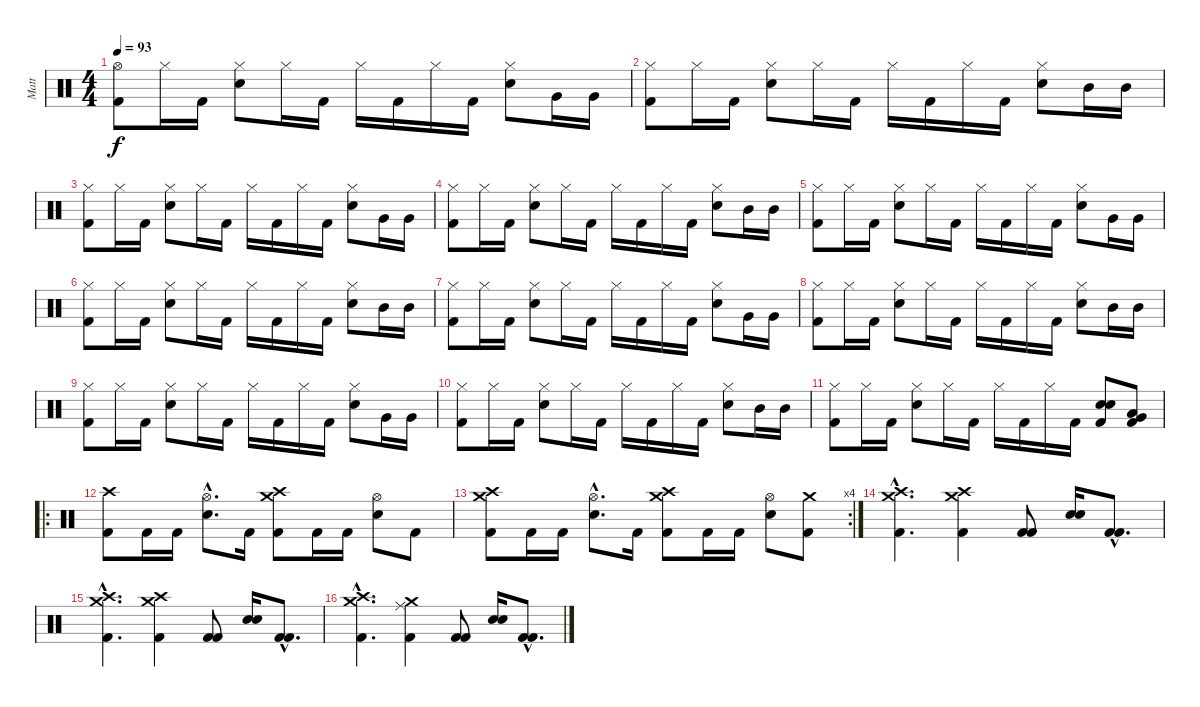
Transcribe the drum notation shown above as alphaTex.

\track ("Matt" "Matt") {instrument percussion}
\staff {score}
\articulation defaults
\ts (4 4)
\tempo 93
\clef neutral
\ks c
("Hi-Hat (open)" "Kick (hit) 2").8{dy f} "Hi-Hat (closed)".16 "Kick (hit) 2".16 ("Hi-Hat (closed)" "Electric Snare (hit)").8 "Hi-Hat (closed)".16 "Kick (hit) 2".16 "Hi-Hat (closed)".16 "Kick (hit) 2".16 "Hi-Hat (closed)".16 "Kick (hit) 2".16 ("Hi-Hat (closed)" "Electric Snare (hit)").8 "Very Low Tom (hit)".16 "Very Low Tom (hit)".16 |
("Hi-Hat (closed)" "Kick (hit) 2").8 "Hi-Hat (closed)".16 "Kick (hit) 2".16 ("Hi-Hat (closed)" "Electric Snare (hit)").8 "Hi-Hat (closed)".16 "Kick (hit) 2".16 "Hi-Hat (closed)".16 "Kick (hit) 2".16 "Hi-Hat (closed)".16 "Kick (hit) 2".16 ("Hi-Hat (closed)" "Electric Snare (hit)").8 "Mid Tom (hit)".16 "Mid Tom (hit)".16 |
("Hi-Hat (closed)" "Kick (hit) 2").8 "Hi-Hat (closed)".16 "Kick (hit) 2".16 ("Hi-Hat (closed)" "Electric Snare (hit)").8 "Hi-Hat (closed)".16 "Kick (hit) 2".16 "Hi-Hat (closed)".16 "Kick (hit) 2".16 "Hi-Hat (closed)".16 "Kick (hit) 2".16 ("Hi-Hat (closed)" "Electric Snare (hit)").8 "Very Low Tom (hit)".16 "Very Low Tom (hit)".16 |
("Hi-Hat (closed)" "Kick (hit) 2").8 "Hi-Hat (closed)".16 "Kick (hit) 2".16 ("Hi-Hat (closed)" "Electric Snare (hit)").8 "Hi-Hat (closed)".16 "Kick (hit) 2".16 "Hi-Hat (closed)".16 "Kick (hit) 2".16 "Hi-Hat (closed)".16 "Kick (hit) 2".16 ("Hi-Hat (closed)" "Electric Snare (hit)").8 "Mid Tom (hit)".16 "Mid Tom (hit)".16 |
("Hi-Hat (closed)" "Kick (hit) 2").8 "Hi-Hat (closed)".16 "Kick (hit) 2".16 ("Hi-Hat (closed)" "Electric Snare (hit)").8 "Hi-Hat (closed)".16 "Kick (hit) 2".16 "Hi-Hat (closed)".16 "Kick (hit) 2".16 "Hi-Hat (closed)".16 "Kick (hit) 2".16 ("Hi-Hat (closed)" "Electric Snare (hit)").8 "Very Low Tom (hit)".16 "Very Low Tom (hit)".16 |
("Hi-Hat (closed)" "Kick (hit) 2").8 "Hi-Hat (closed)".16 "Kick (hit) 2".16 ("Hi-Hat (closed)" "Electric Snare (hit)").8 "Hi-Hat (closed)".16 "Kick (hit) 2".16 "Hi-Hat (closed)".16 "Kick (hit) 2".16 "Hi-Hat (closed)".16 "Kick (hit) 2".16 ("Hi-Hat (closed)" "Electric Snare (hit)").8 "Mid Tom (hit)".16 "Mid Tom (hit)".16 |
("Hi-Hat (closed)" "Kick (hit) 2").8 "Hi-Hat (closed)".16 "Kick (hit) 2".16 ("Hi-Hat (closed)" "Electric Snare (hit)").8 "Hi-Hat (closed)".16 "Kick (hit) 2".16 "Hi-Hat (closed)".16 "Kick (hit) 2".16 "Hi-Hat (closed)".16 "Kick (hit) 2".16 ("Hi-Hat (closed)" "Electric Snare (hit)").8 "Very Low Tom (hit)".16 "Very Low Tom (hit)".16 |
("Hi-Hat (closed)" "Kick (hit) 2").8 "Hi-Hat (closed)".16 "Kick (hit) 2".16 ("Hi-Hat (closed)" "Electric Snare (hit)").8 "Hi-Hat (closed)".16 "Kick (hit) 2".16 "Hi-Hat (closed)".16 "Kick (hit) 2".16 "Hi-Hat (closed)".16 "Kick (hit) 2".16 ("Hi-Hat (closed)" "Electric Snare (hit)").8 "Mid Tom (hit)".16 "Mid Tom (hit)".16 |
("Hi-Hat (closed)" "Kick (hit) 2").8 "Hi-Hat (closed)".16 "Kick (hit) 2".16 ("Hi-Hat (closed)" "Electric Snare (hit)").8 "Hi-Hat (closed)".16 "Kick (hit) 2".16 "Hi-Hat (closed)".16 "Kick (hit) 2".16 "Hi-Hat (closed)".16 "Kick (hit) 2".16 ("Hi-Hat (closed)" "Electric Snare (hit)").8 "Very Low Tom (hit)".16 "Very Low Tom (hit)".16 |
("Hi-Hat (closed)" "Kick (hit) 2").8 "Hi-Hat (closed)".16 "Kick (hit) 2".16 ("Hi-Hat (closed)" "Electric Snare (hit)").8 "Hi-Hat (closed)".16 "Kick (hit) 2".16 "Hi-Hat (closed)".16 "Kick (hit) 2".16 "Hi-Hat (closed)".16 "Kick (hit) 2".16 ("Hi-Hat (closed)" "Electric Snare (hit)").8 "Mid Tom (hit)".16 "Mid Tom (hit)".16 |
("Hi-Hat (closed)" "Kick (hit) 2").8 "Hi-Hat (closed)".16 "Kick (hit) 2".16 ("Hi-Hat (closed)" "Electric Snare (hit)").8 "Hi-Hat (closed)".16 "Kick (hit) 2".16 "Hi-Hat (closed)".16 "Kick (hit) 2".16 "Hi-Hat (closed)".16 "Kick (hit) 2".16 ("Electric Snare (hit)" "Electric Snare (hit)" "Kick (hit) 2").8 ("Low Tom (hit)" "Very Low Tom (hit)" "Kick (hit) 2").8 |
\ro
("Crash high (hit)" "Kick (hit) 2").8 "Kick (hit) 2".16 "Kick (hit) 2".16 ("Hi-Hat (open)"{hac} "Electric Snare (hit)"{hac}).8{d} "Kick (hit) 2".16 ("Crash medium (hit)" "Crash high (hit)" "Kick (hit) 2").8 "Kick (hit) 2".16 "Kick (hit) 2".16 ("Hi-Hat (open)" "Electric Snare (hit)").8 "Kick (hit) 2".8 |
\rc 4
("Crash medium (hit)" "Crash high (hit)" "Kick (hit) 2").8 "Kick (hit) 2".16 "Kick (hit) 2".16 ("Hi-Hat (open)"{hac} "Electric Snare (hit)"{hac}).8{d} "Kick (hit) 2".16 ("Crash medium (hit)" "Crash high (hit)" "Kick (hit) 2").8 "Kick (hit) 2".16 "Kick (hit) 2".16 ("Hi-Hat (open)" "Electric Snare (hit)").8 ("Crash medium (hit)" "Kick (hit) 2").8 |
("Crash medium (hit)"{hac} "Crash high (hit)"{hac} "Kick (hit) 2"{hac}).4{d} ("Crash high (hit)" "Crash medium (hit)" "Kick (hit) 2").4 ("Kick (hit) 2" "Kick (hit) 2").8 ("Electric Snare (hit)" "Electric Snare (hit)").16 ("Kick (hit) 2"{hac} "Kick (hit) 2"{hac}).8{d} |
("Crash medium (hit)"{hac} "Crash high (hit)"{hac} "Kick (hit) 2"{hac}).4{d} ("Crash high (hit)" "Crash medium (hit)" "Kick (hit) 2").4 ("Kick (hit) 2" "Kick (hit) 2").8 ("Electric Snare (hit)" "Electric Snare (hit)").16 ("Kick (hit) 2"{hac} "Kick (hit) 2"{hac}).8{d} |
("Crash medium (hit)"{hac} "Crash high (hit)"{hac} "Kick (hit) 2"{hac}).4{d} ("Crash medium (hit)" "Ride (middle)" "Kick (hit) 2").4 ("Kick (hit) 2" "Kick (hit) 2").8 ("Electric Snare (hit)" "Electric Snare (hit)").16 ("Kick (hit) 2"{hac} "Kick (hit) 2"{hac}).8{d}
